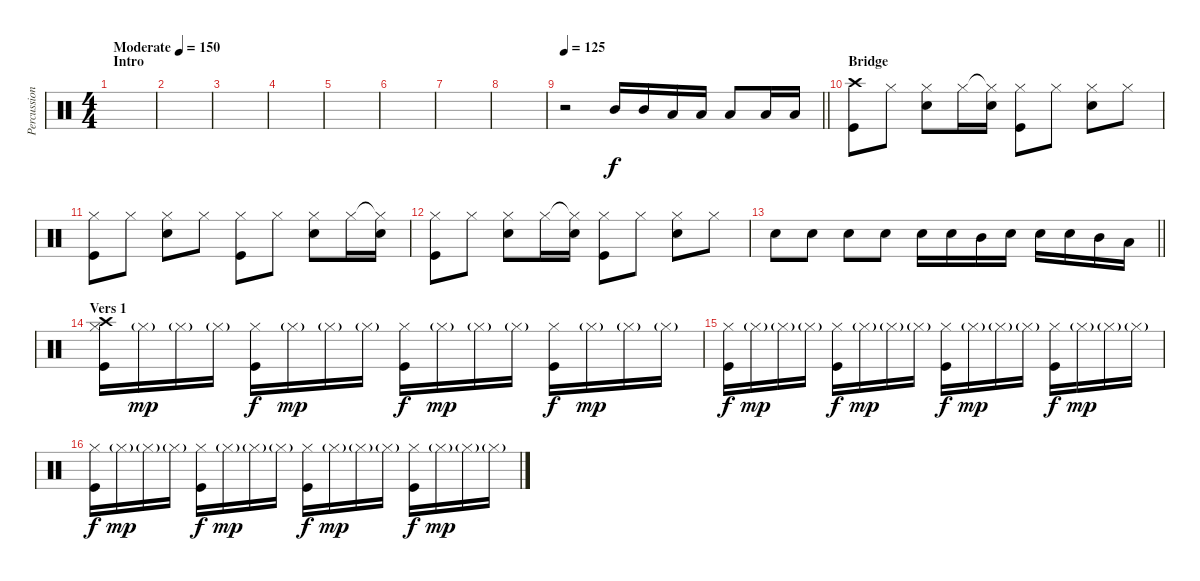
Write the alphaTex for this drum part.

\track ("Percussion" "Percussion") {instrument percussion}
\staff {score}
\articulation defaults
\ts (4 4)
\section ("" "Intro")
\tempo (150 "Moderate")
\clef neutral
\ks c
|
|
|
|
|
|
|
|
\tempo 125
\barLineRight lightlight
r.2 "Mid Tom (hit)".16{balance 0} "Mid Tom (hit)".16{balance 0} "Low Tom (hit)".16 "Low Tom (hit)".16 "Low Floor Tom (hit)".8{balance 16} "Low Floor Tom (hit)".16{balance 16} "Low Floor Tom (hit)".16{balance 16} |
\section ("" "Bridge")
("Crash high (hit)" "Kick (hit)").8{balance 8} "Hi-Hat (closed)".8 ("Hi-Hat (closed)" "Snare (hit) 2").8 "Hi-Hat (closed)".16 ("Hi-Hat (closed)"{t} "Snare (hit) 2").16 ("Kick (hit)" "Hi-Hat (closed)").8 "Hi-Hat (closed)".8 ("Hi-Hat (closed)" "Snare (hit) 2").8 "Hi-Hat (closed)".8 |
("Hi-Hat (closed)" "Kick (hit)").8 "Hi-Hat (closed)".8 ("Hi-Hat (closed)" "Snare (hit) 2").8 "Hi-Hat (closed)".8 ("Kick (hit)" "Hi-Hat (closed)").8 "Hi-Hat (closed)".8 ("Hi-Hat (closed)" "Snare (hit) 2").8 "Hi-Hat (closed)".16 ("Hi-Hat (closed)"{t} "Snare (hit) 2").16 |
("Hi-Hat (closed)" "Kick (hit)").8 "Hi-Hat (closed)".8 ("Hi-Hat (closed)" "Snare (hit) 2").8 "Hi-Hat (closed)".16 ("Hi-Hat (closed)"{t} "Snare (hit) 2").16 ("Kick (hit)" "Hi-Hat (closed)").8 "Hi-Hat (closed)".8 ("Hi-Hat (closed)" "Snare (hit) 2").8 "Hi-Hat (closed)".8 |
\barLineRight lightlight "Snare (hit) 2".8 "Snare (hit) 2".8 "Snare (hit) 2".8 "Snare (hit) 2".8 "Snare (hit) 2".16 "Snare (hit) 2".16 "Mid Tom (hit)".16 "Snare (hit) 2".16 "Snare (hit) 2".16 "Snare (hit) 2".16 "Mid Tom (hit)".16 "Low Tom (hit)".16
|
\section ("" "Vers 1")
("Hi-Hat (closed)" "Kick (hit)" "Crash high (hit)").16 "Hi-Hat (closed)"{g}.16{dy mp} "Hi-Hat (closed)"{g}.16 "Hi-Hat (closed)"{g}.16 ("Hi-Hat (closed)" "Kick (hit)").16{dy f} "Hi-Hat (closed)"{g}.16{dy mp} "Hi-Hat (closed)"{g}.16 "Hi-Hat (closed)"{g}.16 ("Hi-Hat (closed)" "Kick (hit)").16{dy f} "Hi-Hat (closed)"{g}.16{dy mp} "Hi-Hat (closed)"{g}.16 "Hi-Hat (closed)"{g}.16 ("Hi-Hat (closed)" "Kick (hit)").16{dy f} "Hi-Hat (closed)"{g}.16{dy mp} "Hi-Hat (closed)"{g}.16 "Hi-Hat (closed)"{g}.16 |
("Hi-Hat (closed)" "Kick (hit)").16{dy f} "Hi-Hat (closed)"{g}.16{dy mp} "Hi-Hat (closed)"{g}.16 "Hi-Hat (closed)"{g}.16 ("Hi-Hat (closed)" "Kick (hit)").16{dy f} "Hi-Hat (closed)"{g}.16{dy mp} "Hi-Hat (closed)"{g}.16 "Hi-Hat (closed)"{g}.16 ("Hi-Hat (closed)" "Kick (hit)").16{dy f} "Hi-Hat (closed)"{g}.16{dy mp} "Hi-Hat (closed)"{g}.16 "Hi-Hat (closed)"{g}.16 ("Hi-Hat (closed)" "Kick (hit)").16{dy f} "Hi-Hat (closed)"{g}.16{dy mp} "Hi-Hat (closed)"{g}.16 "Hi-Hat (closed)"{g}.16 |
("Hi-Hat (closed)" "Kick (hit)").16{dy f} "Hi-Hat (closed)"{g}.16{dy mp} "Hi-Hat (closed)"{g}.16 "Hi-Hat (closed)"{g}.16 ("Hi-Hat (closed)" "Kick (hit)").16{dy f} "Hi-Hat (closed)"{g}.16{dy mp} "Hi-Hat (closed)"{g}.16 "Hi-Hat (closed)"{g}.16 ("Hi-Hat (closed)" "Kick (hit)").16{dy f} "Hi-Hat (closed)"{g}.16{dy mp} "Hi-Hat (closed)"{g}.16 "Hi-Hat (closed)"{g}.16 ("Hi-Hat (closed)" "Kick (hit)").16{dy f} "Hi-Hat (closed)"{g}.16{dy mp} "Hi-Hat (closed)"{g}.16 "Hi-Hat (closed)"{g}.16
